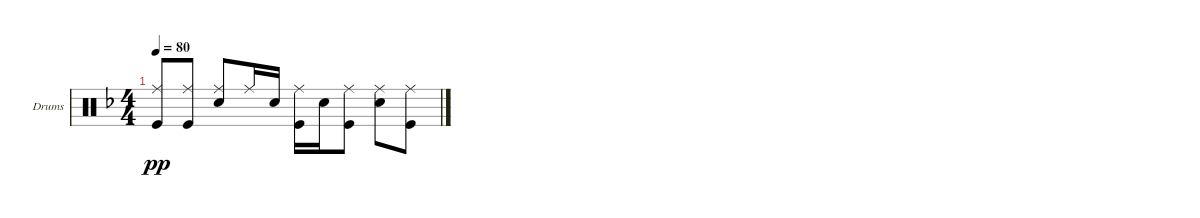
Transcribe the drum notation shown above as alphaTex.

\defaultSystemsLayout 4
\bracketExtendMode groupsimilarinstruments
\firstSystemTrackNameOrientation horizontal
\otherSystemsTrackNameOrientation horizontal
\track ("Drumkit" "Drums") {instrument percussion}
\staff {score}
\articulation defaults
\ts (4 4)
\tempo 80
\clef neutral
\ks f
("Kick (hit)" "Ride (middle)").8{dy pp} ("Kick (hit)" "Ride (middle)").8 ("Snare (hit) 2" "Ride (middle)").8{beam invert} "Ride (middle)".16 "Snare (hit) 2".16 ("Kick (hit)" "Ride (middle)").16 "Snare (hit) 2".16 ("Kick (hit)" "Ride (middle)").8 ("Snare (hit) 2" "Ride (middle)").8 ("Kick (hit)" "Ride (middle)").8
